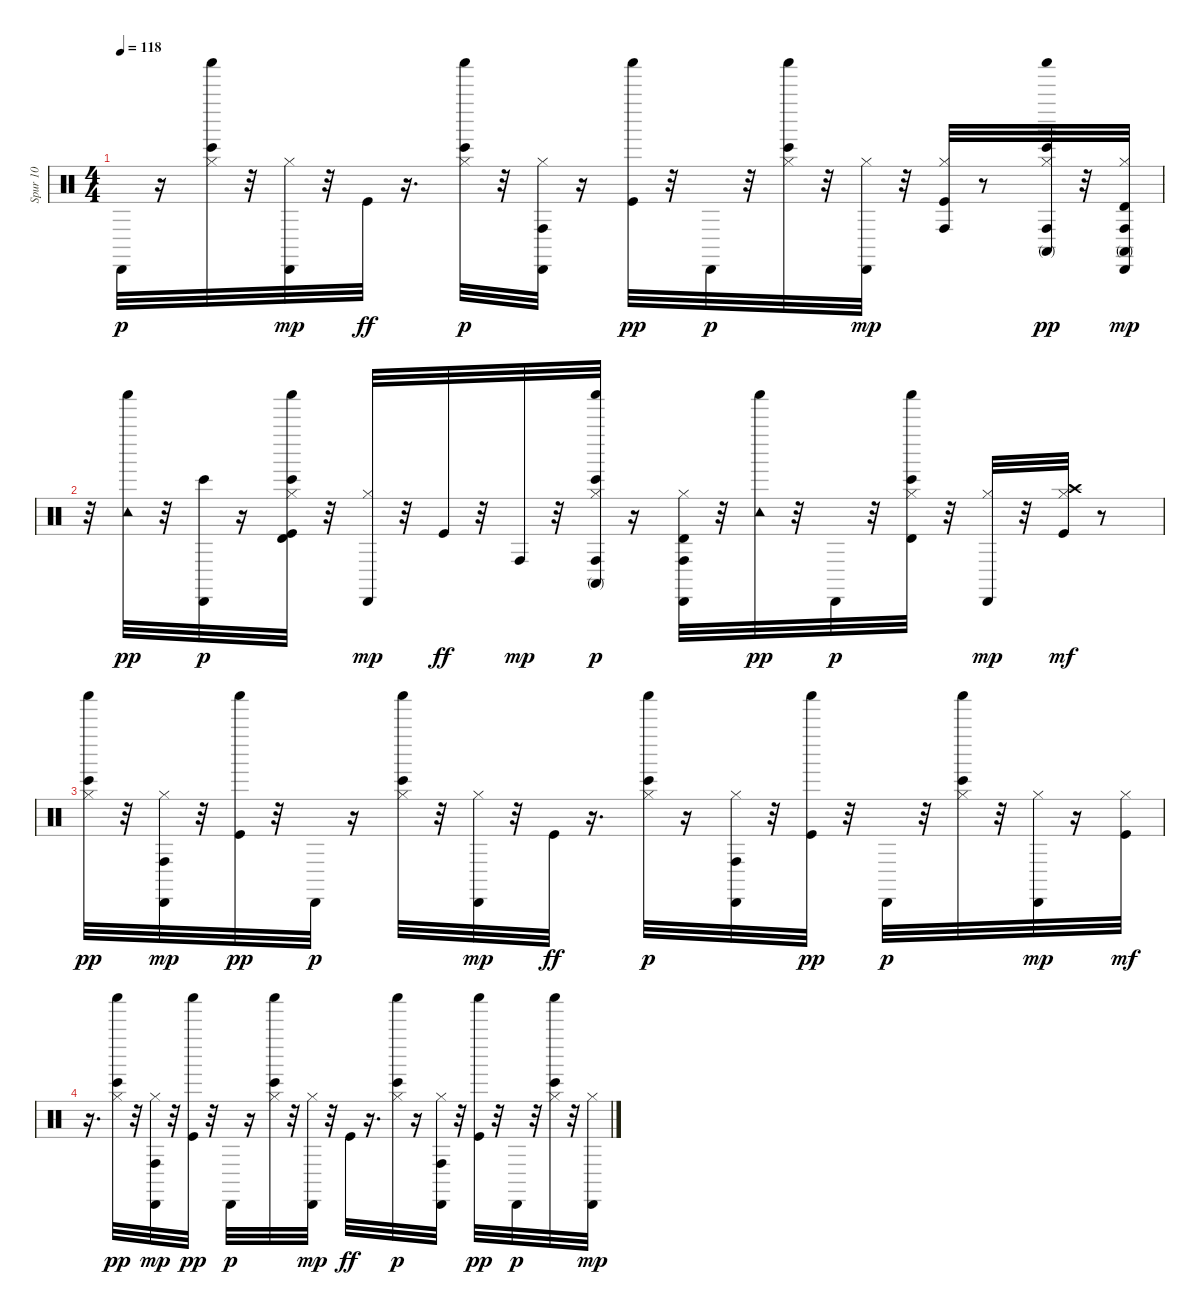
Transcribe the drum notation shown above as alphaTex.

\track ("Spur 10" "Spur 10") {instrument percussion}
\staff {score}
\articulation defaults
\ts (4 4)
\tempo 118
\clef neutral
\ks c "Cabasa (hit)".32{dy p}
r.16 ("Hi-Hat (closed)" "Bongo High (hit)" "Shaker (hit)").32 r.32 ("Hi-Hat (closed)" "Cabasa (hit)").32{dy mp} r.32 "Kick (hit)".32{dy ff} r.16{d} ("Hi-Hat (closed)" "Bongo High (hit)" "Shaker (hit)").32{dy p} r.32 ("Hi-Hat (closed)" "Conga high (hit)" "Cabasa (hit)").32 r.16 ("Kick (hit)" "Shaker (hit)").32{dy pp} r.32 "Cabasa (hit)".32{dy p} r.32 ("Hi-Hat (closed)" "Bongo High (hit)" "Shaker (hit)").32 r.32 ("Hi-Hat (closed)" "Cabasa (hit)").32{dy mp} r.32 ("Kick (hit)" "Hi-Hat (closed)" "Conga high (hit)").32 r.8 ("Hi-Hat (closed)" "Bongo High (hit)" "Conga high (mute)" "Conga high (hit)" "Shaker (hit)").32{dy pp} r.32 ("Hi-Hat (closed)" "Conga high (mute)" "Conga high (hit)" "Timbale high (hit)" "Cabasa (hit)").32{dy mp} |
r.32 ("Tambourine (hit)" "Shaker (hit)").32{dy pp} r.32 ("Bongo High (hit)" "Cabasa (hit)").32{dy p} r.16 ("Kick (hit)" "Hi-Hat (closed)" "Bongo High (hit)" "Timbale high (hit)" "Shaker (hit)").32 r.32 ("Hi-Hat (closed)" "Cabasa (hit)").32{dy mp} r.32 "Kick (hit)".32{dy ff} r.32 "Conga high (hit)".32{dy mp} r.32 ("Hi-Hat (closed)" "Bongo High (hit)" "Conga high (mute)" "Conga high (hit)" "Shaker (hit)").32{dy p} r.16 ("Hi-Hat (closed)" "Conga high (hit)" "Timbale high (hit)" "Cabasa (hit)").32 r.32 ("Tambourine (hit)" "Shaker (hit)").32{dy pp} r.32 "Cabasa (hit)".32{dy p} r.32 ("Hi-Hat (closed)" "Bongo High (hit)" "Timbale high (hit)" "Shaker (hit)").32 r.32 ("Hi-Hat (closed)" "Cabasa (hit)").32{dy mp} r.32 ("Kick (hit)" "Hi-Hat (closed)" "Crash high (hit)").32{dy mf} r.8 |
("Hi-Hat (closed)" "Bongo High (hit)" "Shaker (hit)").32{dy pp} r.32 ("Hi-Hat (closed)" "Conga high (hit)" "Cabasa (hit)").32{dy mp} r.32 ("Kick (hit)" "Shaker (hit)").32{dy pp} r.32 "Cabasa (hit)".32{dy p} r.16 ("Hi-Hat (closed)" "Bongo High (hit)" "Shaker (hit)").32 r.32 ("Hi-Hat (closed)" "Cabasa (hit)").32{dy mp} r.32 "Kick (hit)".32{dy ff} r.16{d} ("Hi-Hat (closed)" "Bongo High (hit)" "Shaker (hit)").32{dy p} r.16 ("Hi-Hat (closed)" "Conga high (hit)" "Cabasa (hit)").32 r.32 ("Kick (hit)" "Shaker (hit)").32{dy pp} r.32 "Cabasa (hit)".32{dy p} r.32 ("Hi-Hat (closed)" "Bongo High (hit)" "Shaker (hit)").32 r.32 ("Hi-Hat (closed)" "Cabasa (hit)").32{dy mp} r.16 ("Kick (hit)" "Hi-Hat (closed)").32{dy mf} |
r.16{d} ("Hi-Hat (closed)" "Bongo High (hit)" "Shaker (hit)").32{dy pp} r.32 ("Hi-Hat (closed)" "Conga high (hit)" "Cabasa (hit)").32{dy mp} r.32 ("Kick (hit)" "Shaker (hit)").32{dy pp} r.32 "Cabasa (hit)".32{dy p} r.16 ("Hi-Hat (closed)" "Bongo High (hit)" "Shaker (hit)").32 r.32 ("Hi-Hat (closed)" "Cabasa (hit)").32{dy mp} r.32 "Kick (hit)".32{dy ff} r.16{d} ("Hi-Hat (closed)" "Bongo High (hit)" "Shaker (hit)").32{dy p} r.16 ("Hi-Hat (closed)" "Conga high (hit)" "Cabasa (hit)").32 r.32 ("Kick (hit)" "Shaker (hit)").32{dy pp} r.32 "Cabasa (hit)".32{dy p} r.32 ("Hi-Hat (closed)" "Bongo High (hit)" "Shaker (hit)").32 r.32 ("Hi-Hat (closed)" "Cabasa (hit)").32{dy mp}
